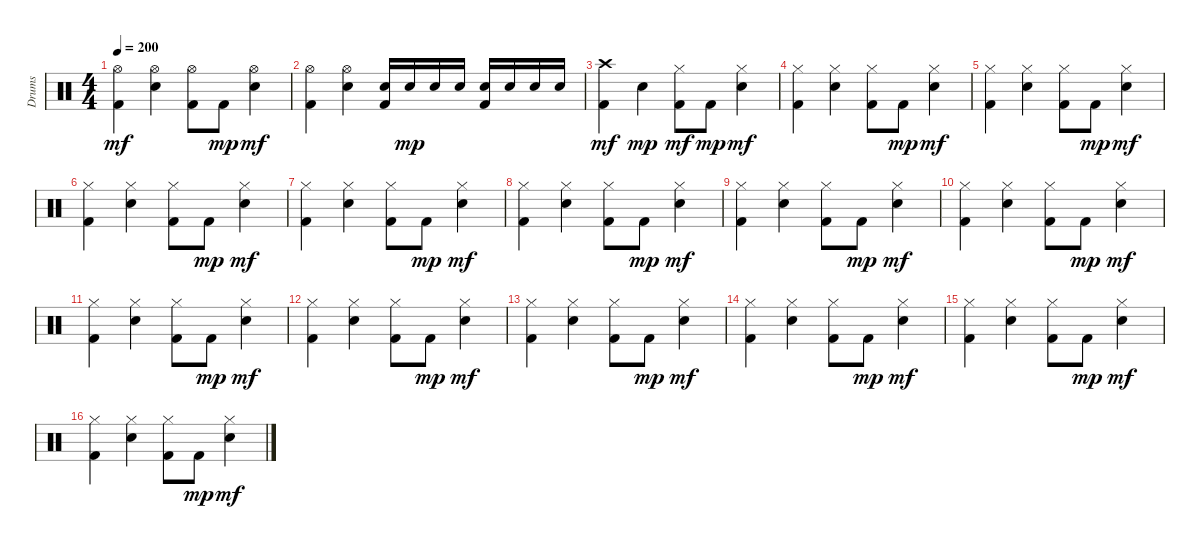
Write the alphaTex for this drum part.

\track ("Drums" "Drums") {instrument percussion}
\staff {score}
\articulation defaults
\ts (4 4)
\tempo 200
\clef neutral
\ks c
("Hi-Hat (open)" "Kick (hit) 2").4{dy mf} ("Snare (hit) 2" "Hi-Hat (open)").4 ("Hi-Hat (open)" "Kick (hit) 2").8 "Kick (hit) 2".8{dy mp} ("Snare (hit) 2" "Hi-Hat (open)").4{dy mf} |
("Hi-Hat (open)" "Kick (hit) 2").4 ("Snare (hit) 2" "Hi-Hat (open)").4 ("Snare (hit) 2" "Kick (hit) 2").16 "Snare (hit) 2".16{dy mp} "Snare (hit) 2".16 "Snare (hit) 2".16 ("Snare (hit) 2" "Kick (hit) 2").16 "Snare (hit) 2".16 "Snare (hit) 2".16 "Snare (hit) 2".16 |
("Crash high (hit)" "Kick (hit) 2").4{dy mf} "Snare (hit) 2".4{dy mp} ("Hi-Hat (closed)" "Kick (hit) 2").8{dy mf} "Kick (hit) 2".8{dy mp} ("Snare (hit) 2" "Hi-Hat (closed)").4{dy mf} |
("Hi-Hat (closed)" "Kick (hit) 2").4 ("Snare (hit) 2" "Hi-Hat (closed)").4 ("Hi-Hat (closed)" "Kick (hit) 2").8 "Kick (hit) 2".8{dy mp} ("Snare (hit) 2" "Hi-Hat (closed)").4{dy mf} |
("Hi-Hat (closed)" "Kick (hit) 2").4 ("Snare (hit) 2" "Hi-Hat (closed)").4 ("Hi-Hat (closed)" "Kick (hit) 2").8 "Kick (hit) 2".8{dy mp} ("Snare (hit) 2" "Hi-Hat (closed)").4{dy mf} |
("Hi-Hat (closed)" "Kick (hit) 2").4 ("Snare (hit) 2" "Hi-Hat (closed)").4 ("Hi-Hat (closed)" "Kick (hit) 2").8 "Kick (hit) 2".8{dy mp} ("Snare (hit) 2" "Hi-Hat (closed)").4{dy mf} |
("Hi-Hat (closed)" "Kick (hit) 2").4 ("Snare (hit) 2" "Hi-Hat (closed)").4 ("Hi-Hat (closed)" "Kick (hit) 2").8 "Kick (hit) 2".8{dy mp} ("Snare (hit) 2" "Hi-Hat (closed)").4{dy mf} |
("Hi-Hat (closed)" "Kick (hit) 2").4 ("Snare (hit) 2" "Hi-Hat (closed)").4 ("Hi-Hat (closed)" "Kick (hit) 2").8 "Kick (hit) 2".8{dy mp} ("Snare (hit) 2" "Hi-Hat (closed)").4{dy mf} |
("Hi-Hat (closed)" "Kick (hit) 2").4 ("Snare (hit) 2" "Hi-Hat (closed)").4 ("Hi-Hat (closed)" "Kick (hit) 2").8 "Kick (hit) 2".8{dy mp} ("Snare (hit) 2" "Hi-Hat (closed)").4{dy mf} |
("Hi-Hat (closed)" "Kick (hit) 2").4 ("Snare (hit) 2" "Hi-Hat (closed)").4 ("Hi-Hat (closed)" "Kick (hit) 2").8 "Kick (hit) 2".8{dy mp} ("Snare (hit) 2" "Hi-Hat (closed)").4{dy mf} |
("Hi-Hat (closed)" "Kick (hit) 2").4 ("Snare (hit) 2" "Hi-Hat (closed)").4 ("Hi-Hat (closed)" "Kick (hit) 2").8 "Kick (hit) 2".8{dy mp} ("Snare (hit) 2" "Hi-Hat (closed)").4{dy mf} |
("Hi-Hat (closed)" "Kick (hit) 2").4 ("Snare (hit) 2" "Hi-Hat (closed)").4 ("Hi-Hat (closed)" "Kick (hit) 2").8 "Kick (hit) 2".8{dy mp} ("Snare (hit) 2" "Hi-Hat (closed)").4{dy mf} |
("Hi-Hat (closed)" "Kick (hit) 2").4 ("Snare (hit) 2" "Hi-Hat (closed)").4 ("Hi-Hat (closed)" "Kick (hit) 2").8 "Kick (hit) 2".8{dy mp} ("Snare (hit) 2" "Hi-Hat (closed)").4{dy mf} |
("Hi-Hat (closed)" "Kick (hit) 2").4 ("Snare (hit) 2" "Hi-Hat (closed)").4 ("Hi-Hat (closed)" "Kick (hit) 2").8 "Kick (hit) 2".8{dy mp} ("Snare (hit) 2" "Hi-Hat (closed)").4{dy mf} |
("Hi-Hat (closed)" "Kick (hit) 2").4 ("Snare (hit) 2" "Hi-Hat (closed)").4 ("Hi-Hat (closed)" "Kick (hit) 2").8 "Kick (hit) 2".8{dy mp} ("Snare (hit) 2" "Hi-Hat (closed)").4{dy mf} |
("Hi-Hat (closed)" "Kick (hit) 2").4 ("Snare (hit) 2" "Hi-Hat (closed)").4 ("Hi-Hat (closed)" "Kick (hit) 2").8 "Kick (hit) 2".8{dy mp} ("Snare (hit) 2" "Hi-Hat (closed)").4{dy mf}
